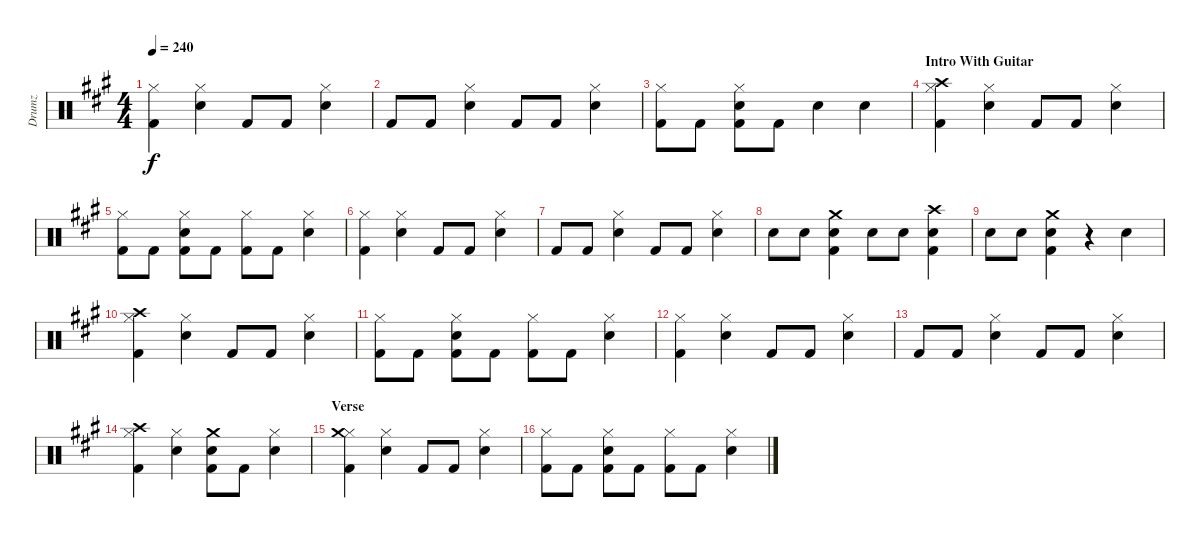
\track ("Drumz" "Drumz") {instrument percussion}
\staff {score}
\articulation defaults
\ts (4 4)
\tempo 240
\clef neutral
\ks a
("Hi-Hat (closed)" "Kick (hit) 2").4{dy f} ("Hi-Hat (closed)" "Electric Snare (hit)").4 "Kick (hit) 2".8 "Kick (hit) 2".8 ("Electric Snare (hit)" "Hi-Hat (closed)").4 |
"Kick (hit) 2".8 "Kick (hit) 2".8 ("Hi-Hat (closed)" "Electric Snare (hit)").4 "Kick (hit) 2".8 "Kick (hit) 2".8 ("Electric Snare (hit)" "Hi-Hat (closed)").4 |
("Hi-Hat (closed)" "Kick (hit) 2").8 "Kick (hit) 2".8 ("Hi-Hat (closed)" "Electric Snare (hit)" "Kick (hit) 2").8 "Kick (hit) 2".8 "Electric Snare (hit)".4 "Electric Snare (hit)".4 |
\section ("" "Intro With Guitar")
("Hi-Hat (closed)" "Crash high (hit)" "Kick (hit) 2").4 ("Hi-Hat (closed)" "Electric Snare (hit)").4 "Kick (hit) 2".8 "Kick (hit) 2".8 ("Electric Snare (hit)" "Hi-Hat (closed)").4 |
("Hi-Hat (closed)" "Kick (hit) 2").8 "Kick (hit) 2".8 ("Hi-Hat (closed)" "Electric Snare (hit)" "Kick (hit) 2").8 "Kick (hit) 2".8 ("Hi-Hat (closed)" "Kick (hit) 2").8 "Kick (hit) 2".8 ("Hi-Hat (closed)" "Electric Snare (hit)").4 |
("Hi-Hat (closed)" "Kick (hit) 2").4 ("Hi-Hat (closed)" "Electric Snare (hit)").4 "Kick (hit) 2".8 "Kick (hit) 2".8 ("Electric Snare (hit)" "Hi-Hat (closed)").4 |
"Kick (hit) 2".8 "Kick (hit) 2".8 ("Hi-Hat (closed)" "Electric Snare (hit)").4 "Kick (hit) 2".8 "Kick (hit) 2".8 ("Electric Snare (hit)" "Hi-Hat (closed)").4 |
"Electric Snare (hit)".8 "Electric Snare (hit)".8 ("Crash medium (hit)" "Electric Snare (hit)" "Kick (hit) 2").4 "Electric Snare (hit)".8 "Electric Snare (hit)".8 ("Crash high (hit)" "Electric Snare (hit)" "Kick (hit) 2").4 |
"Electric Snare (hit)".8 "Electric Snare (hit)".8 ("Crash medium (hit)" "Electric Snare (hit)" "Kick (hit) 2").4 r.4 "Electric Snare (hit)".4 |
("Hi-Hat (closed)" "Crash high (hit)" "Kick (hit) 2").4 ("Hi-Hat (closed)" "Electric Snare (hit)").4 "Kick (hit) 2".8 "Kick (hit) 2".8 ("Electric Snare (hit)" "Hi-Hat (closed)").4 |
("Hi-Hat (closed)" "Kick (hit) 2").8 "Kick (hit) 2".8 ("Hi-Hat (closed)" "Electric Snare (hit)" "Kick (hit) 2").8 "Kick (hit) 2".8 ("Hi-Hat (closed)" "Kick (hit) 2").8 "Kick (hit) 2".8 ("Hi-Hat (closed)" "Electric Snare (hit)").4 |
("Hi-Hat (closed)" "Kick (hit) 2").4 ("Hi-Hat (closed)" "Electric Snare (hit)").4 "Kick (hit) 2".8 "Kick (hit) 2".8 ("Electric Snare (hit)" "Hi-Hat (closed)").4 |
"Kick (hit) 2".8 "Kick (hit) 2".8 ("Hi-Hat (closed)" "Electric Snare (hit)").4 "Kick (hit) 2".8 "Kick (hit) 2".8 ("Electric Snare (hit)" "Hi-Hat (closed)").4 |
("Hi-Hat (closed)" "Crash high (hit)" "Kick (hit) 2").4 ("Hi-Hat (closed)" "Electric Snare (hit)").4 ("Kick (hit) 2" "Crash medium (hit)" "Electric Snare (hit)").8 "Kick (hit) 2".8 ("Electric Snare (hit)" "Hi-Hat (closed)").4 |
\section ("" "Verse")
("Hi-Hat (closed)" "Crash medium (hit)" "Kick (hit) 2").4 ("Hi-Hat (closed)" "Electric Snare (hit)").4 "Kick (hit) 2".8 "Kick (hit) 2".8 ("Electric Snare (hit)" "Hi-Hat (closed)").4 |
("Hi-Hat (closed)" "Kick (hit) 2").8 "Kick (hit) 2".8 ("Hi-Hat (closed)" "Electric Snare (hit)" "Kick (hit) 2").8 "Kick (hit) 2".8 ("Hi-Hat (closed)" "Kick (hit) 2").8 "Kick (hit) 2".8 ("Hi-Hat (closed)" "Electric Snare (hit)").4
